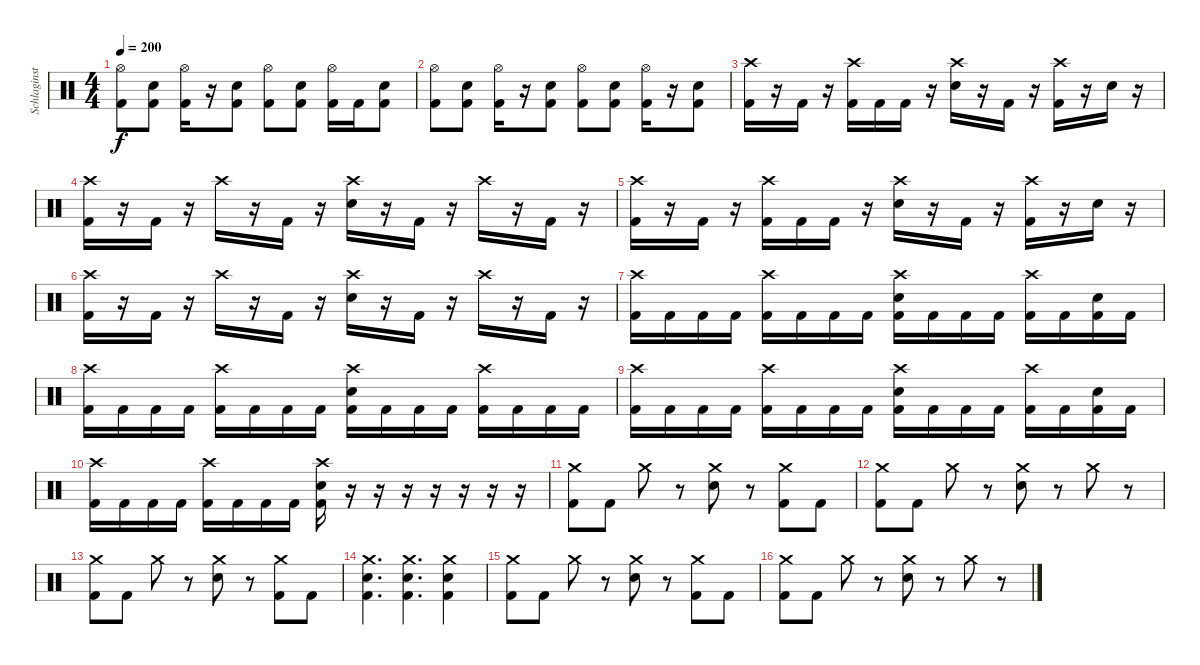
\track ("Schlaginstrumente - Auswahl" "Schlaginst") {instrument percussion}
\staff {score}
\articulation defaults
\ts (4 4)
\tempo 200
\clef neutral
\ks c
("Kick (hit) 2" "Hi-Hat (open)").8{dy f} ("Kick (hit) 2" "Electric Snare (hit)").8 ("Kick (hit) 2" "Hi-Hat (open)").16 r.16 ("Kick (hit) 2" "Electric Snare (hit)").8 ("Kick (hit) 2" "Hi-Hat (open)").8 ("Kick (hit) 2" "Electric Snare (hit)").8 ("Kick (hit) 2" "Hi-Hat (open)").16 "Kick (hit) 2".16 ("Kick (hit) 2" "Electric Snare (hit)").8 |
("Kick (hit) 2" "Hi-Hat (open)").8 ("Kick (hit) 2" "Electric Snare (hit)").8 ("Kick (hit) 2" "Hi-Hat (open)").16 r.16 ("Kick (hit) 2" "Electric Snare (hit)").8 ("Kick (hit) 2" "Hi-Hat (open)").8 ("Kick (hit) 2" "Electric Snare (hit)").8 ("Kick (hit) 2" "Hi-Hat (open)").16 r.16 ("Kick (hit) 2" "Electric Snare (hit)").8 |
("Crash high (hit)" "Kick (hit) 2").16 r.16 "Kick (hit) 2".16 r.16 ("Crash high (hit)" "Kick (hit) 2").16 "Kick (hit) 2".16 "Kick (hit) 2".16 r.16 ("Crash high (hit)" "Electric Snare (hit)").16 r.16 "Kick (hit) 2".16 r.16 ("Crash high (hit)" "Kick (hit) 2").16 r.16 "Electric Snare (hit)".16 r.16 |
("Crash high (hit)" "Kick (hit) 2").16 r.16 "Kick (hit) 2".16 r.16 "Crash high (hit)".16 r.16 "Kick (hit) 2".16 r.16 ("Crash high (hit)" "Electric Snare (hit)").16 r.16 "Kick (hit) 2".16 r.16 "Crash high (hit)".16 r.16 "Kick (hit) 2".16 r.16 |
("Crash high (hit)" "Kick (hit) 2").16 r.16 "Kick (hit) 2".16 r.16 ("Crash high (hit)" "Kick (hit) 2").16 "Kick (hit) 2".16 "Kick (hit) 2".16 r.16 ("Crash high (hit)" "Electric Snare (hit)").16 r.16 "Kick (hit) 2".16 r.16 ("Crash high (hit)" "Kick (hit) 2").16 r.16 "Electric Snare (hit)".16 r.16 |
("Crash high (hit)" "Kick (hit) 2").16 r.16 "Kick (hit) 2".16 r.16 "Crash high (hit)".16 r.16 "Kick (hit) 2".16 r.16 ("Crash high (hit)" "Electric Snare (hit)").16 r.16 "Kick (hit) 2".16 r.16 "Crash high (hit)".16 r.16 "Kick (hit) 2".16 r.16 |
("Crash high (hit)" "Kick (hit) 2").16 "Kick (hit) 2".16 "Kick (hit) 2".16 "Kick (hit) 2".16 ("Crash high (hit)" "Kick (hit) 2").16 "Kick (hit) 2".16 "Kick (hit) 2".16 "Kick (hit) 2".16 ("Crash high (hit)" "Electric Snare (hit)" "Kick (hit) 2").16 "Kick (hit) 2".16 "Kick (hit) 2".16 "Kick (hit) 2".16 ("Crash high (hit)" "Kick (hit) 2").16 "Kick (hit) 2".16 ("Electric Snare (hit)" "Kick (hit) 2").16 "Kick (hit) 2".16 |
("Crash high (hit)" "Kick (hit) 2").16 "Kick (hit) 2".16 "Kick (hit) 2".16 "Kick (hit) 2".16 ("Crash high (hit)" "Kick (hit) 2").16 "Kick (hit) 2".16 "Kick (hit) 2".16 "Kick (hit) 2".16 ("Crash high (hit)" "Electric Snare (hit)" "Kick (hit) 2").16 "Kick (hit) 2".16 "Kick (hit) 2".16 "Kick (hit) 2".16 ("Crash high (hit)" "Kick (hit) 2").16 "Kick (hit) 2".16 "Kick (hit) 2".16 "Kick (hit) 2".16 |
("Crash high (hit)" "Kick (hit) 2").16 "Kick (hit) 2".16 "Kick (hit) 2".16 "Kick (hit) 2".16 ("Crash high (hit)" "Kick (hit) 2").16 "Kick (hit) 2".16 "Kick (hit) 2".16 "Kick (hit) 2".16 ("Crash high (hit)" "Electric Snare (hit)" "Kick (hit) 2").16 "Kick (hit) 2".16 "Kick (hit) 2".16 "Kick (hit) 2".16 ("Crash high (hit)" "Kick (hit) 2").16 "Kick (hit) 2".16 ("Electric Snare (hit)" "Kick (hit) 2").16 "Kick (hit) 2".16 |
("Crash high (hit)" "Kick (hit) 2").16 "Kick (hit) 2".16 "Kick (hit) 2".16 "Kick (hit) 2".16 ("Crash high (hit)" "Kick (hit) 2").16 "Kick (hit) 2".16 "Kick (hit) 2".16 "Kick (hit) 2".16 ("Crash high (hit)" "Electric Snare (hit)" "Kick (hit) 2").16 r.16 r.16 r.16 r.16 r.16 r.16 r.16 |
("Crash medium (hit)" "Kick (hit) 2").8 "Kick (hit) 2".8 "Crash medium (hit)".8 r.8 ("Crash medium (hit)" "Electric Snare (hit)").8 r.8 ("Crash medium (hit)" "Kick (hit) 2").8 "Kick (hit) 2".8 |
("Crash medium (hit)" "Kick (hit) 2").8 "Kick (hit) 2".8 "Crash medium (hit)".8 r.8 ("Crash medium (hit)" "Electric Snare (hit)").8 r.8 "Crash medium (hit)".8 r.8 |
("Crash medium (hit)" "Kick (hit) 2").8 "Kick (hit) 2".8 "Crash medium (hit)".8 r.8 ("Crash medium (hit)" "Electric Snare (hit)").8 r.8 ("Crash medium (hit)" "Kick (hit) 2").8 "Kick (hit) 2".8 |
("Crash medium (hit)" "Electric Snare (hit)" "Kick (hit) 2").4{d} ("Crash medium (hit)" "Electric Snare (hit)" "Kick (hit) 2").4{d} ("Crash medium (hit)" "Electric Snare (hit)" "Kick (hit) 2").4 |
("Crash medium (hit)" "Kick (hit) 2").8 "Kick (hit) 2".8 "Crash medium (hit)".8 r.8 ("Crash medium (hit)" "Electric Snare (hit)").8 r.8 ("Crash medium (hit)" "Kick (hit) 2").8 "Kick (hit) 2".8 |
("Crash medium (hit)" "Kick (hit) 2").8 "Kick (hit) 2".8 "Crash medium (hit)".8 r.8 ("Crash medium (hit)" "Electric Snare (hit)").8 r.8 "Crash medium (hit)".8 r.8
